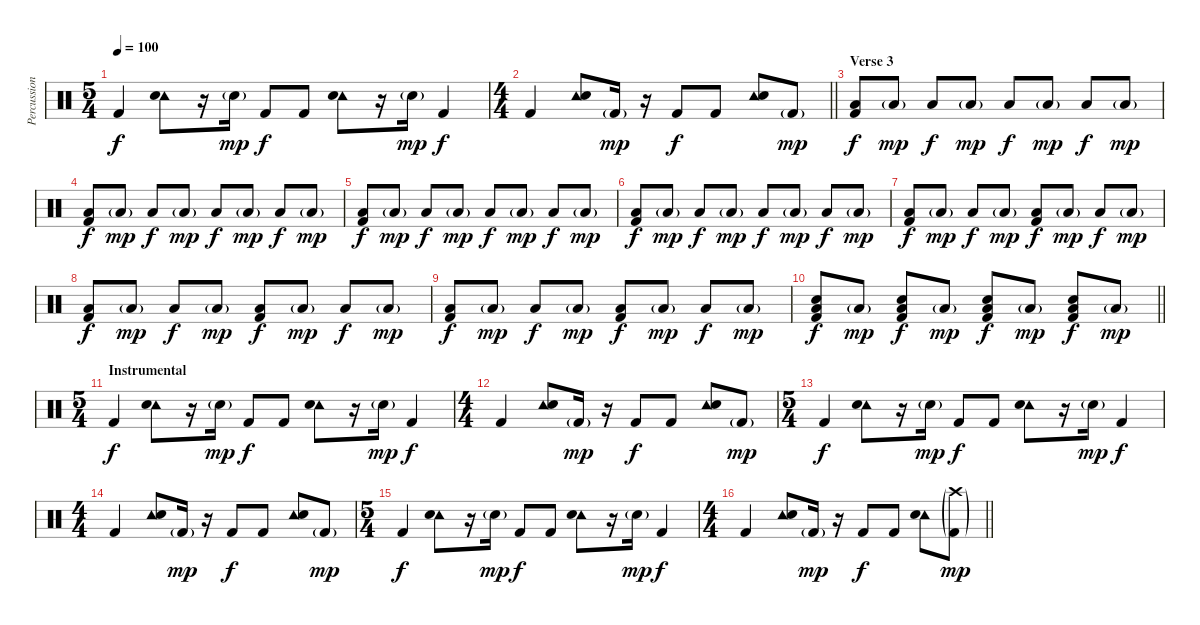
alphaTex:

\track ("Percussion" "Percussion") {instrument percussion}
\staff {score}
\articulation defaults
\ts (5 4)
\tempo 100
\clef neutral
\ks c "Kick (hit) 2".4{dy f}
("Tambourine (hit)" "Snare (hit) 2").8 r.16 "Snare (hit) 2"{g}.16{dy mp} "Kick (hit) 2".8{dy f} "Kick (hit) 2".8 ("Tambourine (hit)" "Snare (hit) 2").8 r.16 "Snare (hit) 2"{g}.16{dy mp} "Kick (hit) 2".4{dy f} |
\ts (4 4)
\barLineRight lightlight "Kick (hit) 2".4
("Tambourine (hit)" "Snare (hit) 2").8 "Kick (hit) 2"{g}.16{dy mp} r.16 "Kick (hit) 2".8{dy f} "Kick (hit) 2".8 ("Tambourine (hit)" "Snare (hit) 2").8 "Kick (hit) 2"{g}.8{dy mp} |
\section ("" "Verse 3")
("Low Floor Tom (hit)" "Kick (hit) 2").8{dy f volume 3} "Low Floor Tom (hit)"{g}.8{dy mp} "Low Floor Tom (hit)".8{dy f} "Low Floor Tom (hit)"{g}.8{dy mp} "Low Floor Tom (hit)".8{dy f} "Low Floor Tom (hit)"{g}.8{dy mp} "Low Floor Tom (hit)".8{dy f} "Low Floor Tom (hit)"{g}.8{dy mp} |
("Low Floor Tom (hit)" "Kick (hit) 2").8{dy f} "Low Floor Tom (hit)"{g}.8{dy mp} "Low Floor Tom (hit)".8{dy f} "Low Floor Tom (hit)"{g}.8{dy mp} "Low Floor Tom (hit)".8{dy f} "Low Floor Tom (hit)"{g}.8{dy mp} "Low Floor Tom (hit)".8{dy f} "Low Floor Tom (hit)"{g}.8{dy mp} |
("Low Floor Tom (hit)" "Kick (hit) 2").8{dy f} "Low Floor Tom (hit)"{g}.8{dy mp} "Low Floor Tom (hit)".8{dy f} "Low Floor Tom (hit)"{g}.8{dy mp} "Low Floor Tom (hit)".8{dy f} "Low Floor Tom (hit)"{g}.8{dy mp} "Low Floor Tom (hit)".8{dy f} "Low Floor Tom (hit)"{g}.8{dy mp} |
("Low Floor Tom (hit)" "Kick (hit) 2").8{dy f} "Low Floor Tom (hit)"{g}.8{dy mp} "Low Floor Tom (hit)".8{dy f} "Low Floor Tom (hit)"{g}.8{dy mp} "Low Floor Tom (hit)".8{dy f} "Low Floor Tom (hit)"{g}.8{dy mp} "Low Floor Tom (hit)".8{dy f} "Low Floor Tom (hit)"{g}.8{dy mp} |
("Low Floor Tom (hit)" "Kick (hit) 2").8{dy f} "Low Floor Tom (hit)"{g}.8{dy mp} "Low Floor Tom (hit)".8{dy f} "Low Floor Tom (hit)"{g}.8{dy mp} ("Low Floor Tom (hit)" "Kick (hit) 2").8{dy f} "Low Floor Tom (hit)"{g}.8{dy mp} "Low Floor Tom (hit)".8{dy f} "Low Floor Tom (hit)"{g}.8{dy mp} |
("Low Floor Tom (hit)" "Kick (hit) 2").8{dy f} "Low Floor Tom (hit)"{g}.8{dy mp} "Low Floor Tom (hit)".8{dy f} "Low Floor Tom (hit)"{g}.8{dy mp} ("Low Floor Tom (hit)" "Kick (hit) 2").8{dy f} "Low Floor Tom (hit)"{g}.8{dy mp} "Low Floor Tom (hit)".8{dy f} "Low Floor Tom (hit)"{g}.8{dy mp} |
("Low Floor Tom (hit)" "Kick (hit) 2").8{dy f} "Low Floor Tom (hit)"{g}.8{dy mp} "Low Floor Tom (hit)".8{dy f} "Low Floor Tom (hit)"{g}.8{dy mp} ("Low Floor Tom (hit)" "Kick (hit) 2").8{dy f} "Low Floor Tom (hit)"{g}.8{dy mp} "Low Floor Tom (hit)".8{dy f} "Low Floor Tom (hit)"{g}.8{dy mp} |
\barLineRight lightlight
("Snare (hit) 2" "Low Floor Tom (hit)" "Kick (hit) 2").8{dy f} "Low Floor Tom (hit)"{g}.8{dy mp} ("Snare (hit) 2" "Low Floor Tom (hit)" "Kick (hit) 2").8{dy f} "Low Floor Tom (hit)"{g}.8{dy mp} ("Snare (hit) 2" "Low Floor Tom (hit)" "Kick (hit) 2").8{dy f} "Low Floor Tom (hit)"{g}.8{dy mp} ("Snare (hit) 2" "Low Floor Tom (hit)" "Kick (hit) 2").8{dy f} "Low Floor Tom (hit)"{g}.8{dy mp} |
\ts (5 4)
\section ("" "Instrumental")
"Kick (hit) 2".4{dy f volume 5} ("Tambourine (hit)" "Snare (hit) 2").8 r.16 "Snare (hit) 2"{g}.16{dy mp} "Kick (hit) 2".8{dy f} "Kick (hit) 2".8 ("Tambourine (hit)" "Snare (hit) 2").8 r.16 "Snare (hit) 2"{g}.16{dy mp} "Kick (hit) 2".4{dy f} |
\ts (4 4)
"Kick (hit) 2".4 ("Tambourine (hit)" "Snare (hit) 2").8 "Kick (hit) 2"{g}.16{dy mp} r.16 "Kick (hit) 2".8{dy f} "Kick (hit) 2".8 ("Tambourine (hit)" "Snare (hit) 2").8 "Kick (hit) 2"{g}.8{dy mp} |
\ts (5 4)
"Kick (hit) 2".4{dy f} ("Tambourine (hit)" "Snare (hit) 2").8 r.16 "Snare (hit) 2"{g}.16{dy mp} "Kick (hit) 2".8{dy f} "Kick (hit) 2".8 ("Tambourine (hit)" "Snare (hit) 2").8 r.16 "Snare (hit) 2"{g}.16{dy mp} "Kick (hit) 2".4{dy f} |
\ts (4 4)
"Kick (hit) 2".4 ("Tambourine (hit)" "Snare (hit) 2").8 "Kick (hit) 2"{g}.16{dy mp} r.16 "Kick (hit) 2".8{dy f} "Kick (hit) 2".8 ("Tambourine (hit)" "Snare (hit) 2").8 "Kick (hit) 2"{g}.8{dy mp} |
\ts (5 4)
"Kick (hit) 2".4{dy f} ("Tambourine (hit)" "Snare (hit) 2").8 r.16 "Snare (hit) 2"{g}.16{dy mp} "Kick (hit) 2".8{dy f} "Kick (hit) 2".8 ("Tambourine (hit)" "Snare (hit) 2").8 r.16 "Snare (hit) 2"{g}.16{dy mp} "Kick (hit) 2".4{dy f} |
\ts (4 4)
\barLineRight lightlight "Kick (hit) 2".4
("Tambourine (hit)" "Snare (hit) 2").8 "Kick (hit) 2"{g}.16{dy mp} r.16 "Kick (hit) 2".8{dy f} "Kick (hit) 2".8 ("Tambourine (hit)" "Snare (hit) 2").8 ("Crash high (hit)"{g} "Kick (hit) 2"{g}).8{dy mp}
